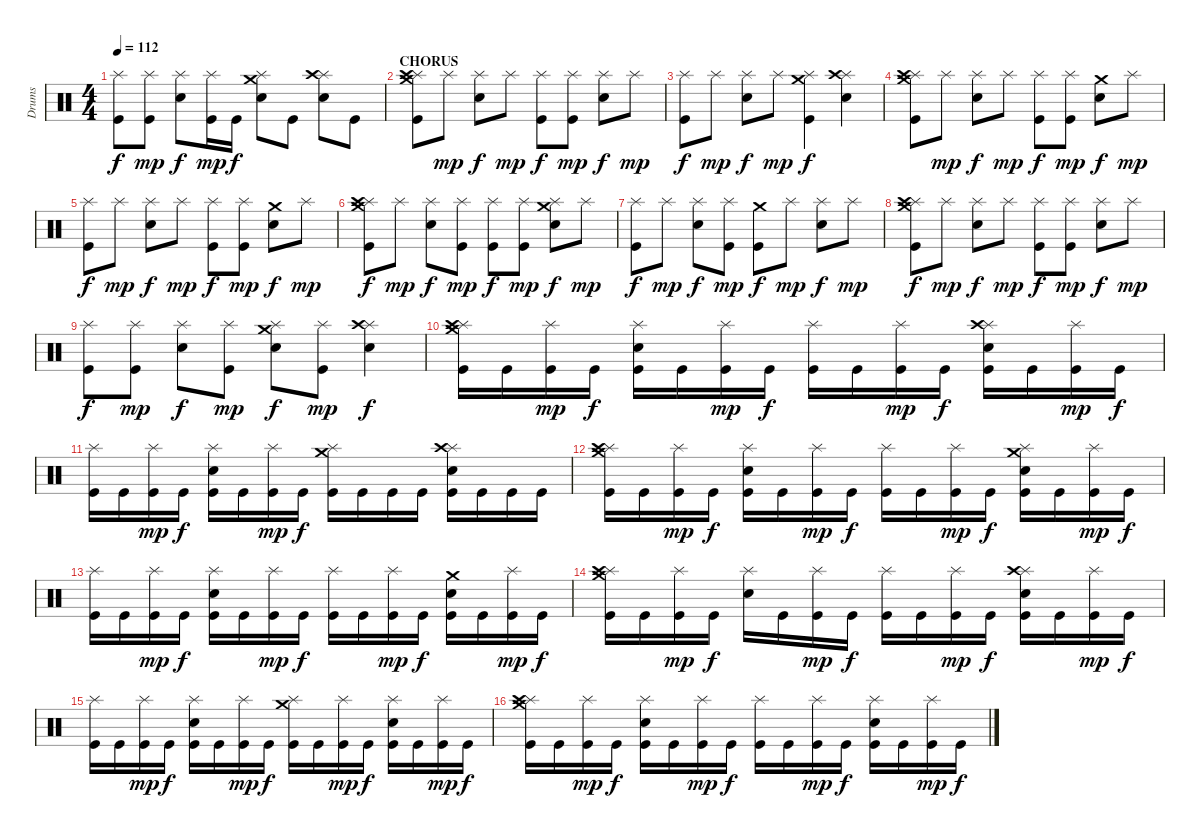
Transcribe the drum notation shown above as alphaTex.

\track ("Drums" "Drums") {instrument percussion}
\staff {score}
\articulation defaults
\ts (4 4)
\tempo 112
\clef neutral
\ks c
("Splash (hit)" "Kick (hit)").8{dy f} ("Splash (hit)" "Kick (hit)").8{dy mp} ("Splash (hit)" "Electric Snare (hit)").8{dy f} ("Splash (hit)" "Kick (hit)").16{dy mp} "Kick (hit)".16{dy f} ("Crash medium (hit)" "Splash (hit)" "Electric Snare (hit)").8{volume 11} "Kick (hit)".8 ("Splash (hit)" "Crash high (hit)" "Electric Snare (hit)").8 "Kick (hit)".8 |
\section ("" "CHORUS")
("Crash medium (hit)" "Splash (hit)" "Crash high (hit)" "Kick (hit)").8 "Splash (hit)".8{dy mp} ("Splash (hit)" "Electric Snare (hit)").8{dy f} "Splash (hit)".8{dy mp} ("Splash (hit)" "Kick (hit)").8{dy f} ("Splash (hit)" "Kick (hit)").8{dy mp} ("Splash (hit)" "Electric Snare (hit)").8{dy f} "Splash (hit)".8{dy mp} |
("Splash (hit)" "Kick (hit)").8{dy f volume 10} "Splash (hit)".8{dy mp} ("Splash (hit)" "Electric Snare (hit)").8{dy f} "Splash (hit)".8{dy mp} ("Crash medium (hit)" "Splash (hit)" "Kick (hit)").4{dy f} ("Splash (hit)" "Crash high (hit)" "Electric Snare (hit)").4 |
("Crash medium (hit)" "Splash (hit)" "Crash high (hit)" "Kick (hit)").8 "Splash (hit)".8{dy mp} ("Splash (hit)" "Electric Snare (hit)").8{dy f} "Splash (hit)".8{dy mp} ("Splash (hit)" "Kick (hit)").8{dy f volume 9} ("Splash (hit)" "Kick (hit)").8{dy mp} ("Crash medium (hit)" "Electric Snare (hit)").8{dy f} "Splash (hit)".8{dy mp} |
("Splash (hit)" "Kick (hit)").8{dy f} "Splash (hit)".8{dy mp} ("Splash (hit)" "Electric Snare (hit)").8{dy f} "Splash (hit)".8{dy mp} ("Splash (hit)" "Kick (hit)").8{dy f} ("Splash (hit)" "Kick (hit)").8{dy mp} ("Crash medium (hit)" "Electric Snare (hit)").8{dy f} "Splash (hit)".8{dy mp} |
("Crash medium (hit)" "Splash (hit)" "Crash high (hit)" "Kick (hit)").8{dy f volume 8} "Splash (hit)".8{dy mp} ("Splash (hit)" "Electric Snare (hit)").8{dy f} ("Splash (hit)" "Kick (hit)").8{dy mp} ("Splash (hit)" "Kick (hit)").8{dy f} ("Splash (hit)" "Kick (hit)").8{dy mp} ("Crash medium (hit)" "Splash (hit)" "Electric Snare (hit)").8{dy f} "Splash (hit)".8{dy mp} |
("Splash (hit)" "Kick (hit)").8{dy f} "Splash (hit)".8{dy mp} ("Splash (hit)" "Electric Snare (hit)").8{dy f} ("Splash (hit)" "Kick (hit)").8{dy mp} ("Crash medium (hit)" "Kick (hit)").8{dy f volume 7} "Splash (hit)".8{dy mp} ("Splash (hit)" "Electric Snare (hit)").8{dy f} "Splash (hit)".8{dy mp} |
("Crash medium (hit)" "Splash (hit)" "Crash high (hit)" "Kick (hit)").8{dy f} "Splash (hit)".8{dy mp} ("Splash (hit)" "Electric Snare (hit)").8{dy f} "Splash (hit)".8{dy mp} ("Splash (hit)" "Kick (hit)").8{dy f} ("Splash (hit)" "Kick (hit)").8{dy mp} ("Splash (hit)" "Electric Snare (hit)").8{dy f} "Splash (hit)".8{dy mp} |
("Splash (hit)" "Kick (hit)").8{dy f volume 6} ("Splash (hit)" "Kick (hit)").8{dy mp} ("Splash (hit)" "Electric Snare (hit)").8{dy f} ("Splash (hit)" "Kick (hit)").8{dy mp} ("Crash medium (hit)" "Splash (hit)" "Electric Snare (hit)").8{dy f} ("Splash (hit)" "Kick (hit)").8{dy mp} ("Splash (hit)" "Crash high (hit)" "Electric Snare (hit)").4{dy f} |
("Crash medium (hit)" "Splash (hit)" "Crash high (hit)" "Kick (hit)").16 "Kick (hit)".16 ("Splash (hit)" "Kick (hit)").16{dy mp} "Kick (hit)".16{dy f} ("Splash (hit)" "Electric Snare (hit)" "Kick (hit)").16 "Kick (hit)".16 ("Splash (hit)" "Kick (hit)").16{dy mp} "Kick (hit)".16{dy f} ("Splash (hit)" "Kick (hit)").16{volume 5} "Kick (hit)".16 ("Splash (hit)" "Kick (hit)").16{dy mp} "Kick (hit)".16{dy f} ("Splash (hit)" "Crash high (hit)" "Electric Snare (hit)" "Kick (hit)").16 "Kick (hit)".16 ("Splash (hit)" "Kick (hit)").16{dy mp} "Kick (hit)".16{dy f} |
("Splash (hit)" "Kick (hit)").16 "Kick (hit)".16 ("Splash (hit)" "Kick (hit)").16{dy mp} "Kick (hit)".16{dy f} ("Splash (hit)" "Electric Snare (hit)" "Kick (hit)").16 "Kick (hit)".16 ("Splash (hit)" "Kick (hit)").16{dy mp} "Kick (hit)".16{dy f} ("Crash medium (hit)" "Splash (hit)" "Kick (hit)").16 "Kick (hit)".16 "Kick (hit)".16 "Kick (hit)".16 ("Splash (hit)" "Crash high (hit)" "Electric Snare (hit)" "Kick (hit)").16 "Kick (hit)".16 "Kick (hit)".16 "Kick (hit)".16 |
("Crash medium (hit)" "Splash (hit)" "Crash high (hit)" "Kick (hit)").16{volume 4} "Kick (hit)".16 ("Splash (hit)" "Kick (hit)").16{dy mp} "Kick (hit)".16{dy f} ("Splash (hit)" "Electric Snare (hit)" "Kick (hit)").16 "Kick (hit)".16 ("Splash (hit)" "Kick (hit)").16{dy mp} "Kick (hit)".16{dy f} ("Splash (hit)" "Kick (hit)").16 "Kick (hit)".16 ("Splash (hit)" "Kick (hit)").16{dy mp} "Kick (hit)".16{dy f} ("Crash medium (hit)" "Splash (hit)" "Electric Snare (hit)" "Kick (hit)").16 "Kick (hit)".16 ("Splash (hit)" "Kick (hit)").16{dy mp} "Kick (hit)".16{dy f} |
("Splash (hit)" "Kick (hit)").16 "Kick (hit)".16 ("Splash (hit)" "Kick (hit)").16{dy mp} "Kick (hit)".16{dy f} ("Splash (hit)" "Electric Snare (hit)" "Kick (hit)").16 "Kick (hit)".16 ("Splash (hit)" "Kick (hit)").16{dy mp} "Kick (hit)".16{dy f} ("Splash (hit)" "Kick (hit)").16{volume 3} "Kick (hit)".16 ("Splash (hit)" "Kick (hit)").16{dy mp} "Kick (hit)".16{dy f} ("Crash medium (hit)" "Electric Snare (hit)" "Kick (hit)").16 "Kick (hit)".16 ("Splash (hit)" "Kick (hit)").16{dy mp} "Kick (hit)".16{dy f} |
("Crash medium (hit)" "Splash (hit)" "Crash high (hit)" "Kick (hit)").16 "Kick (hit)".16 ("Splash (hit)" "Kick (hit)").16{dy mp} "Kick (hit)".16{dy f} ("Splash (hit)" "Electric Snare (hit)").16 "Kick (hit)".16 ("Splash (hit)" "Kick (hit)").16{dy mp} "Kick (hit)".16{dy f} ("Splash (hit)" "Kick (hit)").16 "Kick (hit)".16 ("Splash (hit)" "Kick (hit)").16{dy mp} "Kick (hit)".16{dy f} ("Splash (hit)" "Crash high (hit)" "Electric Snare (hit)" "Kick (hit)").16 "Kick (hit)".16 ("Splash (hit)" "Kick (hit)").16{dy mp} "Kick (hit)".16{dy f} |
("Splash (hit)" "Kick (hit)").16{volume 2} "Kick (hit)".16 ("Splash (hit)" "Kick (hit)").16{dy mp} "Kick (hit)".16{dy f} ("Splash (hit)" "Electric Snare (hit)" "Kick (hit)").16 "Kick (hit)".16 ("Splash (hit)" "Kick (hit)").16{dy mp} "Kick (hit)".16{dy f} ("Crash medium (hit)" "Splash (hit)" "Kick (hit)").16 "Kick (hit)".16 ("Splash (hit)" "Kick (hit)").16{dy mp} "Kick (hit)".16{dy f} ("Splash (hit)" "Electric Snare (hit)" "Kick (hit)").16 "Kick (hit)".16 ("Splash (hit)" "Kick (hit)").16{dy mp} "Kick (hit)".16{dy f} |
("Crash medium (hit)" "Splash (hit)" "Crash high (hit)" "Kick (hit)").16{volume 1} "Kick (hit)".16 ("Splash (hit)" "Kick (hit)").16{dy mp} "Kick (hit)".16{dy f} ("Splash (hit)" "Electric Snare (hit)" "Kick (hit)").16 "Kick (hit)".16 ("Splash (hit)" "Kick (hit)").16{dy mp} "Kick (hit)".16{dy f} ("Splash (hit)" "Kick (hit)").16 "Kick (hit)".16 ("Splash (hit)" "Kick (hit)").16{dy mp} "Kick (hit)".16{dy f} ("Splash (hit)" "Electric Snare (hit)" "Kick (hit)").16 "Kick (hit)".16 ("Splash (hit)" "Kick (hit)").16{dy mp} "Kick (hit)".16{dy f}
